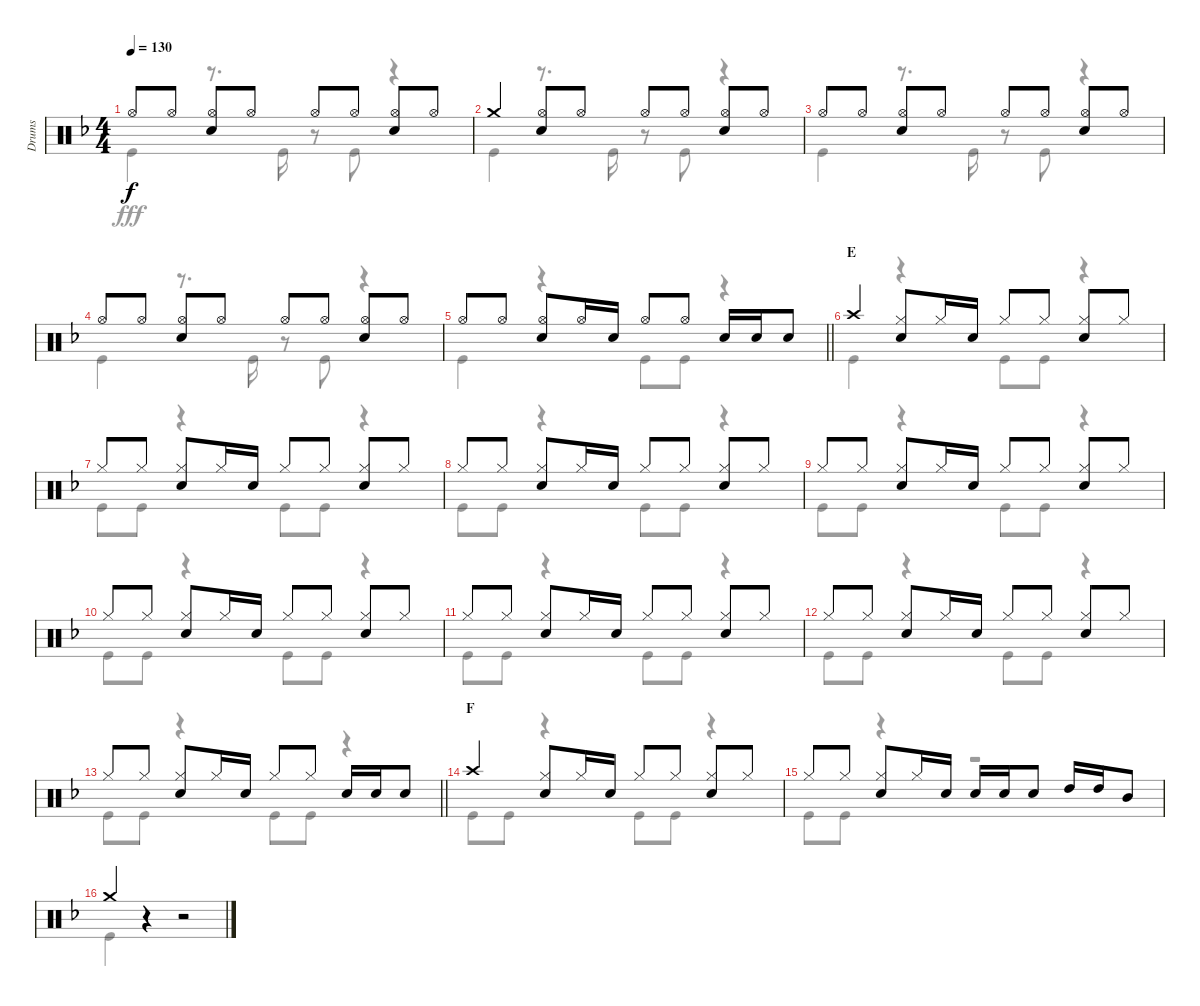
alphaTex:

\track ("Drums" "Drums") {instrument percussion}
\staff {score}
\articulation defaults
\voice
\ts (4 4)
\tempo 130
\clef neutral
\ks f "Hi-Hat (open)".8{dy f} "Hi-Hat (open)".8
("Hi-Hat (open)" "Snare (hit) 2").8 "Hi-Hat (open)".8 "Hi-Hat (open)".8 "Hi-Hat (open)".8 ("Hi-Hat (open)" "Snare (hit) 2").8 "Hi-Hat (open)".8 |
"Crash medium (hit)".4 ("Hi-Hat (open)" "Snare (hit) 2").8 "Hi-Hat (open)".8 "Hi-Hat (open)".8 "Hi-Hat (open)".8 ("Hi-Hat (open)" "Snare (hit) 2").8 "Hi-Hat (open)".8 |
"Hi-Hat (open)".8 "Hi-Hat (open)".8 ("Hi-Hat (open)" "Snare (hit) 2").8 "Hi-Hat (open)".8 "Hi-Hat (open)".8 "Hi-Hat (open)".8 ("Hi-Hat (open)" "Snare (hit) 2").8 "Hi-Hat (open)".8 |
"Hi-Hat (open)".8 "Hi-Hat (open)".8 ("Hi-Hat (open)" "Snare (hit) 2").8 "Hi-Hat (open)".8 "Hi-Hat (open)".8 "Hi-Hat (open)".8 ("Hi-Hat (open)" "Snare (hit) 2").8 "Hi-Hat (open)".8 |
\barLineRight lightlight "Hi-Hat (open)".8 "Hi-Hat (open)".8
("Hi-Hat (open)" "Snare (hit) 2").8 "Hi-Hat (open)".16 "Snare (hit) 2".16 "Hi-Hat (open)".8 "Hi-Hat (open)".8 "Snare (hit) 2".16 "Snare (hit) 2".16 "Snare (hit) 2".8 |
\section ("" "E")
"Crash high (hit)".4 ("Hi-Hat (closed)" "Snare (hit) 2").8 "Hi-Hat (closed)".16 "Snare (hit) 2".16 "Hi-Hat (closed)".8 "Hi-Hat (closed)".8 ("Hi-Hat (closed)" "Snare (hit) 2").8 "Hi-Hat (closed)".8 |
"Hi-Hat (closed)".8 "Hi-Hat (closed)".8 ("Hi-Hat (closed)" "Snare (hit) 2").8 "Hi-Hat (closed)".16 "Snare (hit) 2".16 "Hi-Hat (closed)".8 "Hi-Hat (closed)".8 ("Hi-Hat (closed)" "Snare (hit) 2").8 "Hi-Hat (closed)".8 |
"Hi-Hat (closed)".8 "Hi-Hat (closed)".8 ("Hi-Hat (closed)" "Snare (hit) 2").8 "Hi-Hat (closed)".16 "Snare (hit) 2".16 "Hi-Hat (closed)".8 "Hi-Hat (closed)".8 ("Hi-Hat (closed)" "Snare (hit) 2").8 "Hi-Hat (closed)".8 |
"Hi-Hat (closed)".8 "Hi-Hat (closed)".8 ("Hi-Hat (closed)" "Snare (hit) 2").8 "Hi-Hat (closed)".16 "Snare (hit) 2".16 "Hi-Hat (closed)".8 "Hi-Hat (closed)".8 ("Hi-Hat (closed)" "Snare (hit) 2").8 "Hi-Hat (closed)".8 |
"Hi-Hat (closed)".8 "Hi-Hat (closed)".8 ("Hi-Hat (closed)" "Snare (hit) 2").8 "Hi-Hat (closed)".16 "Snare (hit) 2".16 "Hi-Hat (closed)".8 "Hi-Hat (closed)".8 ("Hi-Hat (closed)" "Snare (hit) 2").8 "Hi-Hat (closed)".8 |
"Hi-Hat (closed)".8 "Hi-Hat (closed)".8 ("Hi-Hat (closed)" "Snare (hit) 2").8 "Hi-Hat (closed)".16 "Snare (hit) 2".16 "Hi-Hat (closed)".8 "Hi-Hat (closed)".8 ("Hi-Hat (closed)" "Snare (hit) 2").8 "Hi-Hat (closed)".8 |
"Hi-Hat (closed)".8 "Hi-Hat (closed)".8 ("Hi-Hat (closed)" "Snare (hit) 2").8 "Hi-Hat (closed)".16 "Snare (hit) 2".16 "Hi-Hat (closed)".8 "Hi-Hat (closed)".8 ("Hi-Hat (closed)" "Snare (hit) 2").8 "Hi-Hat (closed)".8 |
\barLineRight lightlight "Hi-Hat (closed)".8 "Hi-Hat (closed)".8
("Hi-Hat (closed)" "Snare (hit) 2").8 "Hi-Hat (closed)".16 "Snare (hit) 2".16 "Hi-Hat (closed)".8 "Hi-Hat (closed)".8 "Snare (hit) 2".16 "Snare (hit) 2".16 "Snare (hit) 2".8 |
\section ("" "F")
"Crash high (hit)".4 ("Hi-Hat (closed)" "Snare (hit) 2").8 "Hi-Hat (closed)".16 "Snare (hit) 2".16 "Hi-Hat (closed)".8 "Hi-Hat (closed)".8 ("Hi-Hat (closed)" "Snare (hit) 2").8 "Hi-Hat (closed)".8 |
"Hi-Hat (closed)".8 "Hi-Hat (closed)".8 ("Hi-Hat (closed)" "Snare (hit) 2").8 "Hi-Hat (closed)".16 "Snare (hit) 2".16 "Snare (hit) 2".16 "Snare (hit) 2".16 "Snare (hit) 2".8 "High Tom (hit)".16 "High Tom (hit)".16 "Mid Tom (hit)".8 |
"Crash medium (hit)".4 r.4 r.2
\voice
\clef neutral
\ottava regular
\simile none
\ks f "Kick (hit)".4{dy fff}
r.8{d} "Kick (hit)".16 r.8 "Kick (hit)".8 r.4 |
"Kick (hit)".4 r.8{d} "Kick (hit)".16 r.8 "Kick (hit)".8 r.4 |
"Kick (hit)".4 r.8{d} "Kick (hit)".16 r.8 "Kick (hit)".8 r.4 |
"Kick (hit)".4 r.8{d} "Kick (hit)".16 r.8 "Kick (hit)".8 r.4 |
\barLineRight lightlight "Kick (hit)".4
r.4 "Kick (hit)".8 "Kick (hit)".8 r.4 |
"Kick (hit)".4 r.4 "Kick (hit)".8 "Kick (hit)".8 r.4 |
"Kick (hit)".8 "Kick (hit)".8 r.4 "Kick (hit)".8 "Kick (hit)".8 r.4 |
"Kick (hit)".8 "Kick (hit)".8 r.4 "Kick (hit)".8 "Kick (hit)".8 r.4 |
"Kick (hit)".8 "Kick (hit)".8 r.4 "Kick (hit)".8 "Kick (hit)".8 r.4 |
"Kick (hit)".8 "Kick (hit)".8 r.4 "Kick (hit)".8 "Kick (hit)".8 r.4 |
"Kick (hit)".8 "Kick (hit)".8 r.4 "Kick (hit)".8 "Kick (hit)".8 r.4 |
"Kick (hit)".8 "Kick (hit)".8 r.4 "Kick (hit)".8 "Kick (hit)".8 r.4 |
\barLineRight lightlight "Kick (hit)".8 "Kick (hit)".8
r.4 "Kick (hit)".8 "Kick (hit)".8 r.4 |
"Kick (hit)".8 "Kick (hit)".8 r.4 "Kick (hit)".8 "Kick (hit)".8 r.4 |
"Kick (hit)".8 "Kick (hit)".8 r.4 r.2 |
"Kick (hit)".4 r.4 r.2
